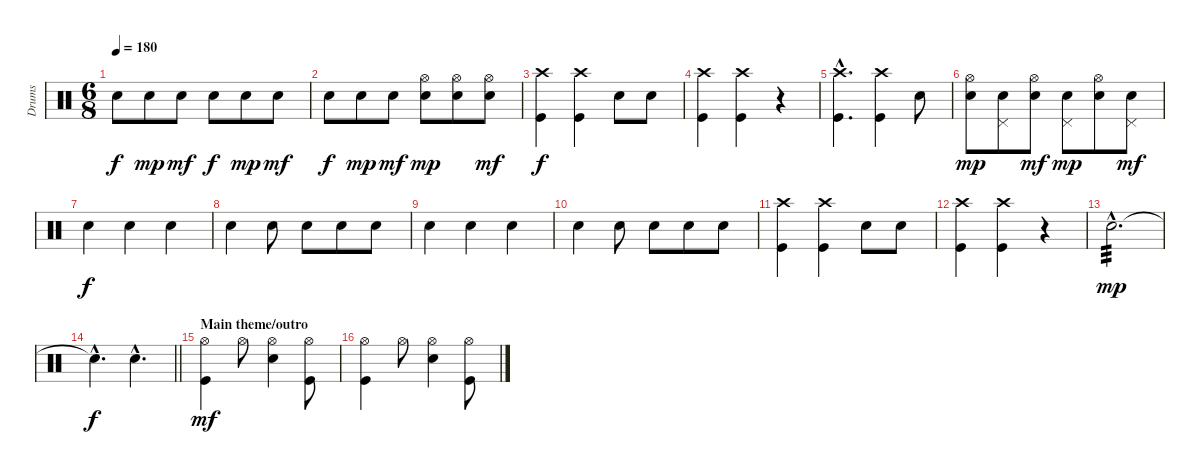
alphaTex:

\track ("Drums" "Drums") {instrument percussion}
\staff {score}
\articulation defaults
\ts (6 8)
\tempo 180
\clef neutral
\ks c "Electric Snare (hit)".8{dy f} "Electric Snare (hit)".8{dy mp} "Electric Snare (hit)".8{dy mf} "Electric Snare (hit)".8{dy f} "Electric Snare (hit)".8{dy mp} "Electric Snare (hit)".8{dy mf}
|
"Electric Snare (hit)".8{dy f} "Electric Snare (hit)".8{dy mp} "Electric Snare (hit)".8{dy mf} ("Hi-Hat (open)" "Electric Snare (hit)").8{dy mp} ("Hi-Hat (open)" "Electric Snare (hit)").8 ("Hi-Hat (open)" "Electric Snare (hit)").8{dy mf} |
("Crash high (hit)" "Kick (hit)").4{dy f} ("Crash high (hit)" "Kick (hit)").4 "Electric Snare (hit)".8 "Electric Snare (hit)".8 |
("Crash high (hit)" "Kick (hit)").4 ("Crash high (hit)" "Kick (hit)").4 r.4 |
("Crash high (hit)"{hac} "Kick (hit)"{hac}).4{d} ("Crash high (hit)" "Kick (hit)").4 "Electric Snare (hit)".8 |
("Hi-Hat (open)" "Electric Snare (hit)").8{dy mp} ("Pedal Hi-Hat (hit)" "Electric Snare (hit)").8 ("Hi-Hat (open)" "Electric Snare (hit)").8{dy mf} ("Pedal Hi-Hat (hit)" "Electric Snare (hit)").8{dy mp} ("Hi-Hat (open)" "Electric Snare (hit)").8 ("Pedal Hi-Hat (hit)" "Electric Snare (hit)").8{dy mf} |
"Electric Snare (hit)".4{dy f} "Electric Snare (hit)".4 "Electric Snare (hit)".4 |
"Electric Snare (hit)".4 "Electric Snare (hit)".8 "Electric Snare (hit)".8 "Electric Snare (hit)".8 "Electric Snare (hit)".8 |
"Electric Snare (hit)".4 "Electric Snare (hit)".4 "Electric Snare (hit)".4 |
"Electric Snare (hit)".4 "Electric Snare (hit)".8 "Electric Snare (hit)".8 "Electric Snare (hit)".8 "Electric Snare (hit)".8 |
("Crash high (hit)" "Kick (hit)").4 ("Crash high (hit)" "Kick (hit)").4 "Electric Snare (hit)".8 "Electric Snare (hit)".8 |
("Crash high (hit)" "Kick (hit)").4 ("Crash high (hit)" "Kick (hit)").4 r.4 |
"Electric Snare (hit)"{hac}.2{d tp 3 dy mp} |
\barLineRight lightlight "Electric Snare (hit)"{hac t}.4{d dy f} "Electric Snare (hit)"{hac}.4{d}
|
\section ("" "Main theme/outro")
("Hi-Hat (open)" "Kick (hit)").4{dy mf} "Hi-Hat (open)".8 ("Hi-Hat (open)" "Electric Snare (hit)").4 ("Hi-Hat (open)" "Kick (hit)").8 |
("Hi-Hat (open)" "Kick (hit)").4 "Hi-Hat (open)".8 ("Hi-Hat (open)" "Electric Snare (hit)").4 ("Hi-Hat (open)" "Kick (hit)").8
